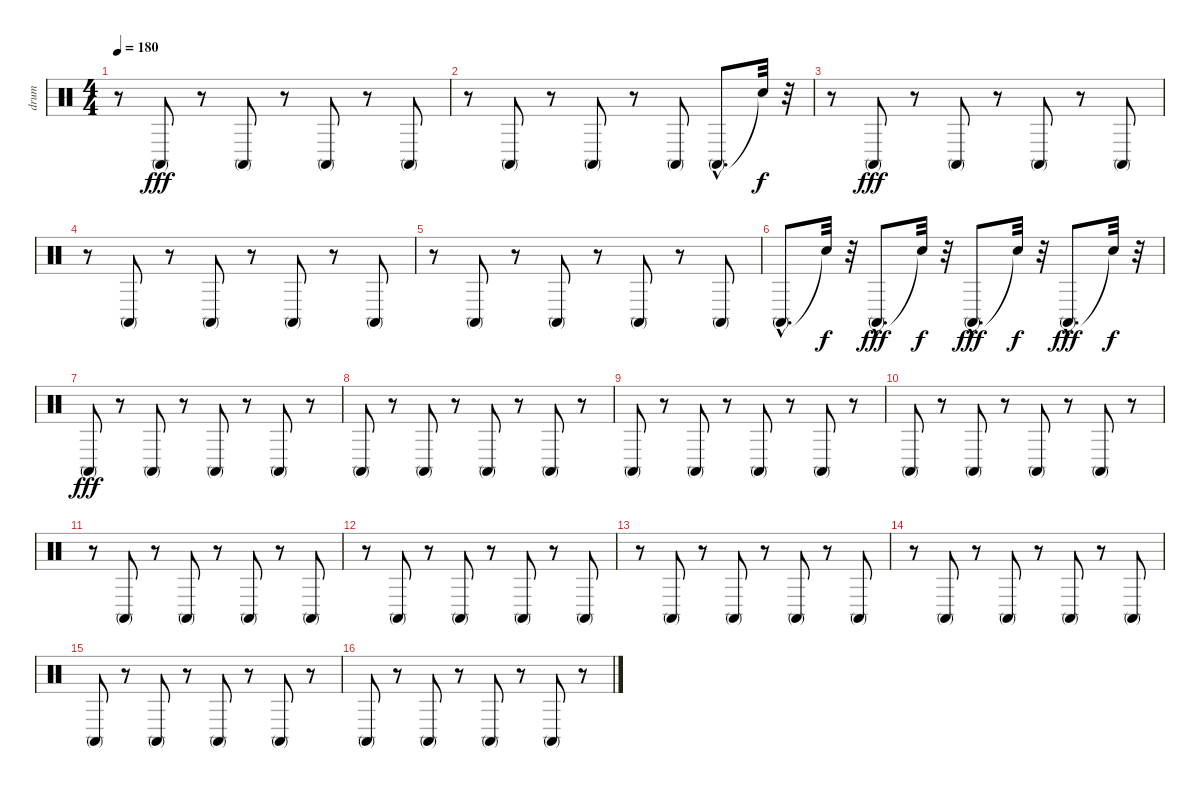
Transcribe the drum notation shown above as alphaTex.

\track ("drum" "drum") {instrument percussion}
\staff {score}
\articulation defaults
\ts (4 4)
\tempo 180
\clef neutral
\ks c
r.8{dy fff} "Conga high (mute)".8 r.8 "Conga high (mute)".8 r.8 "Conga high (mute)".8 r.8 "Conga high (mute)".8 |
r.8 "Conga high (mute)".8 r.8 "Conga high (mute)".8 r.8 "Conga high (mute)".8 "Conga high (mute)"{hac}.8{d} "Snare (hit)"{t}.32{dy f} r.32 |
r.8 "Conga high (mute)".8{dy fff} r.8 "Conga high (mute)".8 r.8 "Conga high (mute)".8 r.8 "Conga high (mute)".8 |
r.8 "Conga high (mute)".8 r.8 "Conga high (mute)".8 r.8 "Conga high (mute)".8 r.8 "Conga high (mute)".8 |
r.8 "Conga high (mute)".8 r.8 "Conga high (mute)".8 r.8 "Conga high (mute)".8 r.8 "Conga high (mute)".8 |
"Conga high (mute)"{hac}.8{d} "Snare (hit)"{t}.32{dy f} r.32 "Conga high (mute)"{hac}.8{d dy fff} "Snare (hit)"{t}.32{dy f} r.32 "Conga high (mute)"{hac}.8{d dy fff} "Snare (hit)"{t}.32{dy f} r.32 "Conga high (mute)"{hac}.8{d dy fff} "Snare (hit)"{t}.32{dy f} r.32 |
"Conga high (mute)".8{dy fff} r.8 "Conga high (mute)".8 r.8 "Conga high (mute)".8 r.8 "Conga high (mute)".8 r.8 |
"Conga high (mute)".8 r.8 "Conga high (mute)".8 r.8 "Conga high (mute)".8 r.8 "Conga high (mute)".8 r.8 |
"Conga high (mute)".8 r.8 "Conga high (mute)".8 r.8 "Conga high (mute)".8 r.8 "Conga high (mute)".8 r.8 |
"Conga high (mute)".8 r.8 "Conga high (mute)".8 r.8 "Conga high (mute)".8 r.8 "Conga high (mute)".8 r.8 |
r.8 "Conga high (mute)".8 r.8 "Conga high (mute)".8 r.8 "Conga high (mute)".8 r.8 "Conga high (mute)".8 |
r.8 "Conga high (mute)".8 r.8 "Conga high (mute)".8 r.8 "Conga high (mute)".8 r.8 "Conga high (mute)".8 |
r.8 "Conga high (mute)".8 r.8 "Conga high (mute)".8 r.8 "Conga high (mute)".8 r.8 "Conga high (mute)".8 |
r.8 "Conga high (mute)".8 r.8 "Conga high (mute)".8 r.8 "Conga high (mute)".8 r.8 "Conga high (mute)".8 |
"Conga high (mute)".8 r.8 "Conga high (mute)".8 r.8 "Conga high (mute)".8 r.8 "Conga high (mute)".8 r.8 |
"Conga high (mute)".8 r.8 "Conga high (mute)".8 r.8 "Conga high (mute)".8 r.8 "Conga high (mute)".8 r.8
